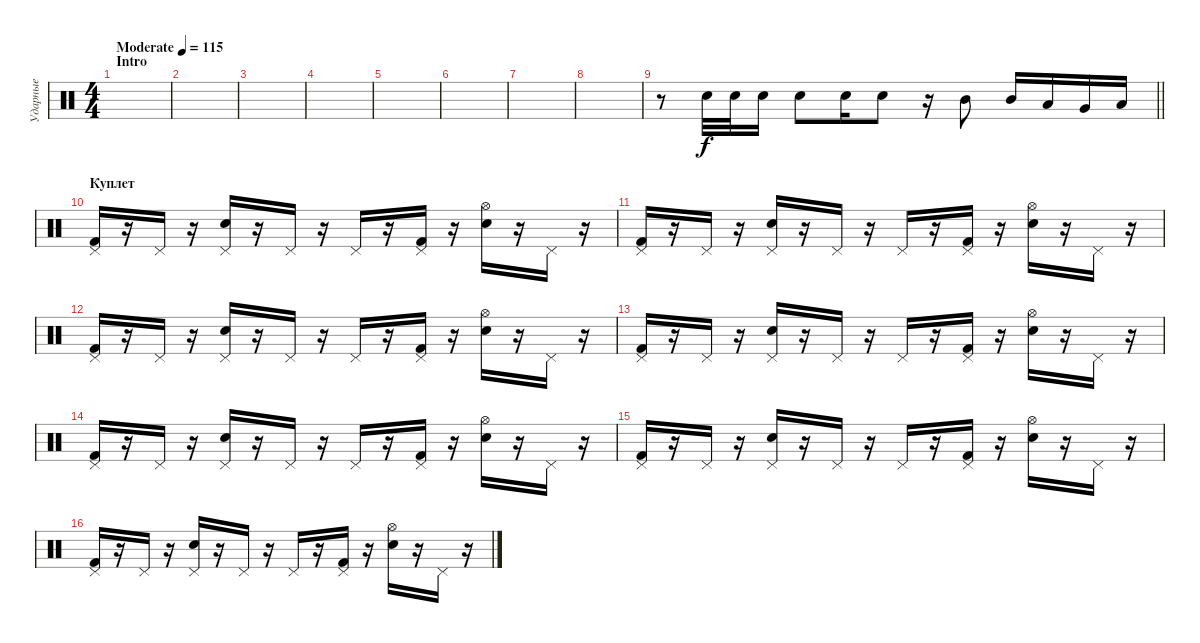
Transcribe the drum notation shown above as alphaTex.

\track ("Ударные" "Ударные") {instrument percussion}
\staff {score}
\articulation defaults
\ts (4 4)
\section ("" "Intro")
\tempo (115 "Moderate")
\clef neutral
\ks c
|
|
|
|
|
|
|
|
\barLineRight lightlight
r.8 "Electric Snare (hit)".32 "Electric Snare (hit)".32 "Electric Snare (hit)".16 "Electric Snare (hit)".8 "Electric Snare (hit)".16 "Electric Snare (hit)".8 r.16 "Mid Tom (hit)".8 "Mid Tom (hit)".16 "Low Tom (hit)".16 "Very Low Tom (hit)".16 "Low Floor Tom (hit)".16 |
\section ("" "Куплет")
("Pedal Hi-Hat (hit)" "Kick (hit) 2").16 r.16 "Pedal Hi-Hat (hit)".16 r.16 ("Pedal Hi-Hat (hit)" "Electric Snare (hit)").16 r.16 "Pedal Hi-Hat (hit)".16 r.16 "Pedal Hi-Hat (hit)".16 r.16 ("Pedal Hi-Hat (hit)" "Kick (hit) 2").16 r.16 ("Hi-Hat (open)" "Electric Snare (hit)").16 r.16 "Pedal Hi-Hat (hit)".16 r.16 |
("Pedal Hi-Hat (hit)" "Kick (hit) 2").16 r.16 "Pedal Hi-Hat (hit)".16 r.16 ("Pedal Hi-Hat (hit)" "Electric Snare (hit)").16 r.16 "Pedal Hi-Hat (hit)".16 r.16 "Pedal Hi-Hat (hit)".16 r.16 ("Pedal Hi-Hat (hit)" "Kick (hit) 2").16 r.16 ("Hi-Hat (open)" "Electric Snare (hit)").16 r.16 "Pedal Hi-Hat (hit)".16 r.16 |
("Pedal Hi-Hat (hit)" "Kick (hit) 2").16 r.16 "Pedal Hi-Hat (hit)".16 r.16 ("Pedal Hi-Hat (hit)" "Electric Snare (hit)").16 r.16 "Pedal Hi-Hat (hit)".16 r.16 "Pedal Hi-Hat (hit)".16 r.16 ("Pedal Hi-Hat (hit)" "Kick (hit) 2").16 r.16 ("Hi-Hat (open)" "Electric Snare (hit)").16 r.16 "Pedal Hi-Hat (hit)".16 r.16 |
("Pedal Hi-Hat (hit)" "Kick (hit) 2").16 r.16 "Pedal Hi-Hat (hit)".16 r.16 ("Pedal Hi-Hat (hit)" "Electric Snare (hit)").16 r.16 "Pedal Hi-Hat (hit)".16 r.16 "Pedal Hi-Hat (hit)".16 r.16 ("Pedal Hi-Hat (hit)" "Kick (hit) 2").16 r.16 ("Hi-Hat (open)" "Electric Snare (hit)").16 r.16 "Pedal Hi-Hat (hit)".16 r.16 |
("Pedal Hi-Hat (hit)" "Kick (hit) 2").16 r.16 "Pedal Hi-Hat (hit)".16 r.16 ("Pedal Hi-Hat (hit)" "Electric Snare (hit)").16 r.16 "Pedal Hi-Hat (hit)".16 r.16 "Pedal Hi-Hat (hit)".16 r.16 ("Pedal Hi-Hat (hit)" "Kick (hit) 2").16 r.16 ("Hi-Hat (open)" "Electric Snare (hit)").16 r.16 "Pedal Hi-Hat (hit)".16 r.16 |
("Pedal Hi-Hat (hit)" "Kick (hit) 2").16 r.16 "Pedal Hi-Hat (hit)".16 r.16 ("Pedal Hi-Hat (hit)" "Electric Snare (hit)").16 r.16 "Pedal Hi-Hat (hit)".16 r.16 "Pedal Hi-Hat (hit)".16 r.16 ("Pedal Hi-Hat (hit)" "Kick (hit) 2").16 r.16 ("Hi-Hat (open)" "Electric Snare (hit)").16 r.16 "Pedal Hi-Hat (hit)".16 r.16 |
("Pedal Hi-Hat (hit)" "Kick (hit) 2").16 r.16 "Pedal Hi-Hat (hit)".16 r.16 ("Pedal Hi-Hat (hit)" "Electric Snare (hit)").16 r.16 "Pedal Hi-Hat (hit)".16 r.16 "Pedal Hi-Hat (hit)".16 r.16 ("Pedal Hi-Hat (hit)" "Kick (hit) 2").16 r.16 ("Hi-Hat (open)" "Electric Snare (hit)").16 r.16 "Pedal Hi-Hat (hit)".16 r.16
